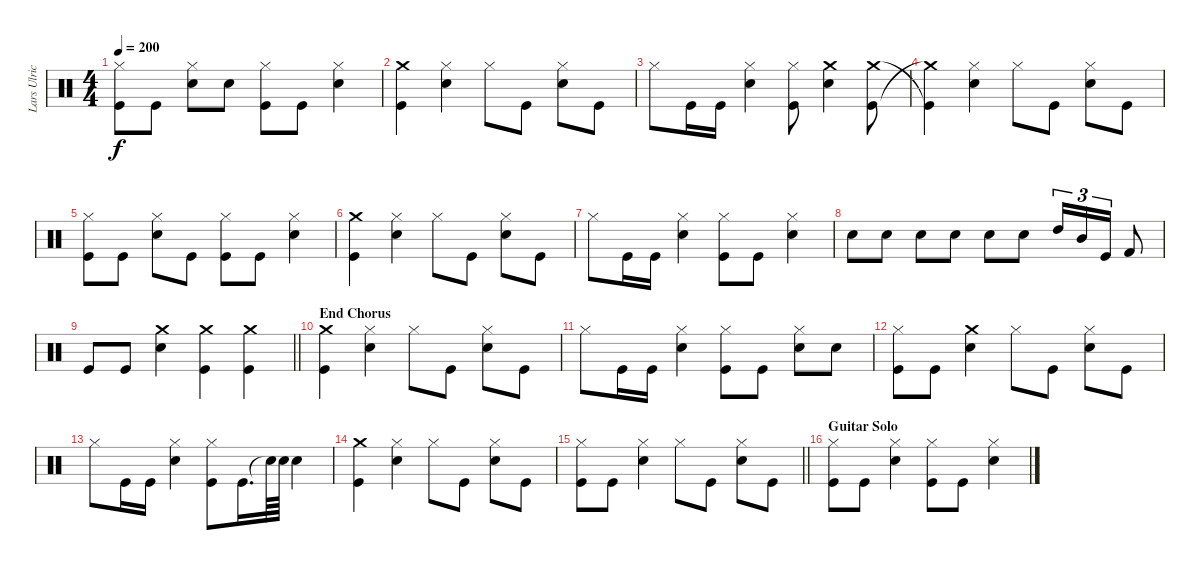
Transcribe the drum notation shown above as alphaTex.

\track ("Lars Ulrich (Drums)" "Lars Ulric") {instrument percussion}
\staff {score}
\articulation defaults
\ts (4 4)
\tempo 200
\clef neutral
\ks c
("Kick (hit)" "Hi-Hat (closed)").8{dy f} "Kick (hit)".8 ("Snare (hit) 2" "Hi-Hat (closed)").8 "Snare (hit) 2".8 ("Kick (hit)" "Hi-Hat (closed)").8 "Kick (hit)".8 ("Snare (hit) 2" "Hi-Hat (closed)").4 |
("Kick (hit)" "Crash medium (hit)").4 ("Hi-Hat (closed)" "Snare (hit) 2").4 "Hi-Hat (closed)".8 "Kick (hit)".8 ("Snare (hit) 2" "Hi-Hat (closed)").8 "Kick (hit)".8 |
"Hi-Hat (closed)".8 "Kick (hit)".16 "Kick (hit)".16 ("Snare (hit) 2" "Hi-Hat (closed)").4 ("Kick (hit)" "Hi-Hat (closed)").8 ("Snare (hit) 2" "Crash medium (hit)").4 ("Crash medium (hit)" "Kick (hit)").8 |
("Kick (hit)"{t} "Crash medium (hit)"{t}).4 ("Hi-Hat (closed)" "Snare (hit) 2").4 "Hi-Hat (closed)".8 "Kick (hit)".8 ("Snare (hit) 2" "Hi-Hat (closed)").8 "Kick (hit)".8 |
("Hi-Hat (closed)" "Kick (hit)").8 "Kick (hit)".8 ("Snare (hit) 2" "Hi-Hat (closed)").8 "Kick (hit)".8 ("Hi-Hat (closed)" "Kick (hit)").8 "Kick (hit)".8 ("Snare (hit) 2" "Hi-Hat (closed)").4 |
("Kick (hit)" "Crash medium (hit)").4 ("Hi-Hat (closed)" "Snare (hit) 2").4 "Hi-Hat (closed)".8 "Kick (hit)".8 ("Snare (hit) 2" "Hi-Hat (closed)").8 "Kick (hit)".8 |
"Hi-Hat (closed)".8 "Kick (hit)".16 "Kick (hit)".16 ("Snare (hit) 2" "Hi-Hat (closed)").4 ("Kick (hit)" "Hi-Hat (closed)").8 "Kick (hit)".8 ("Snare (hit) 2" "Hi-Hat (closed)").4 |
"Snare (hit) 2".8 "Snare (hit) 2".8 "Snare (hit) 2".8 "Snare (hit) 2".8 "Snare (hit) 2".8 "Snare (hit) 2".8 "High Tom (hit)".16{tu (3 2)} "Mid Tom (hit)".16{tu (3 2)} "Kick (hit)".16{tu (3 2)} "Kick (hit) 2".8 |
\barLineRight lightlight "Kick (hit)".8 "Kick (hit)".8
("Crash medium (hit)" "Snare (hit) 2").4 ("Crash medium (hit)" "Kick (hit)").4 ("Crash medium (hit)" "Kick (hit)").4 |
\section ("" "End Chorus")
("Kick (hit)" "Crash medium (hit)").4 ("Hi-Hat (closed)" "Snare (hit) 2").4 "Hi-Hat (closed)".8 "Kick (hit)".8 ("Snare (hit) 2" "Hi-Hat (closed)").8 "Kick (hit)".8 |
"Hi-Hat (closed)".8 "Kick (hit)".16 "Kick (hit)".16 ("Snare (hit) 2" "Hi-Hat (closed)").4 ("Hi-Hat (closed)" "Kick (hit)").8 "Kick (hit)".8 ("Snare (hit) 2" "Hi-Hat (closed)").8 "Snare (hit) 2".8 |
("Hi-Hat (closed)" "Kick (hit)").8 "Kick (hit)".8 ("Crash medium (hit)" "Snare (hit) 2").4 "Hi-Hat (closed)".8 "Kick (hit)".8 ("Snare (hit) 2" "Hi-Hat (closed)").8 "Kick (hit)".8 |
"Hi-Hat (closed)".8 "Kick (hit)".16 "Kick (hit)".16 ("Snare (hit) 2" "Hi-Hat (closed)").4 ("Hi-Hat (closed)" "Kick (hit)").8 "Kick (hit)".16{d} "Snare (hit)"{t}.64 "Snare (hit) 2".64 "Snare (hit) 2".4 |
("Kick (hit)" "Crash medium (hit)").4 ("Hi-Hat (closed)" "Snare (hit) 2").4 "Hi-Hat (closed)".8 "Kick (hit)".8 ("Snare (hit) 2" "Hi-Hat (closed)").8 "Kick (hit)".8 |
\barLineRight lightlight
("Kick (hit)" "Hi-Hat (closed)").8 "Kick (hit)".8 ("Snare (hit) 2" "Hi-Hat (closed)").4 "Hi-Hat (closed)".8 "Kick (hit)".8 ("Snare (hit) 2" "Hi-Hat (closed)").8 "Kick (hit)".8 |
\section ("" "Guitar Solo")
("Kick (hit)" "Hi-Hat (closed)").8 "Kick (hit)".8 ("Snare (hit) 2" "Hi-Hat (closed)").4 ("Kick (hit)" "Hi-Hat (closed)").8 "Kick (hit)".8 ("Snare (hit) 2" "Hi-Hat (closed)").4
